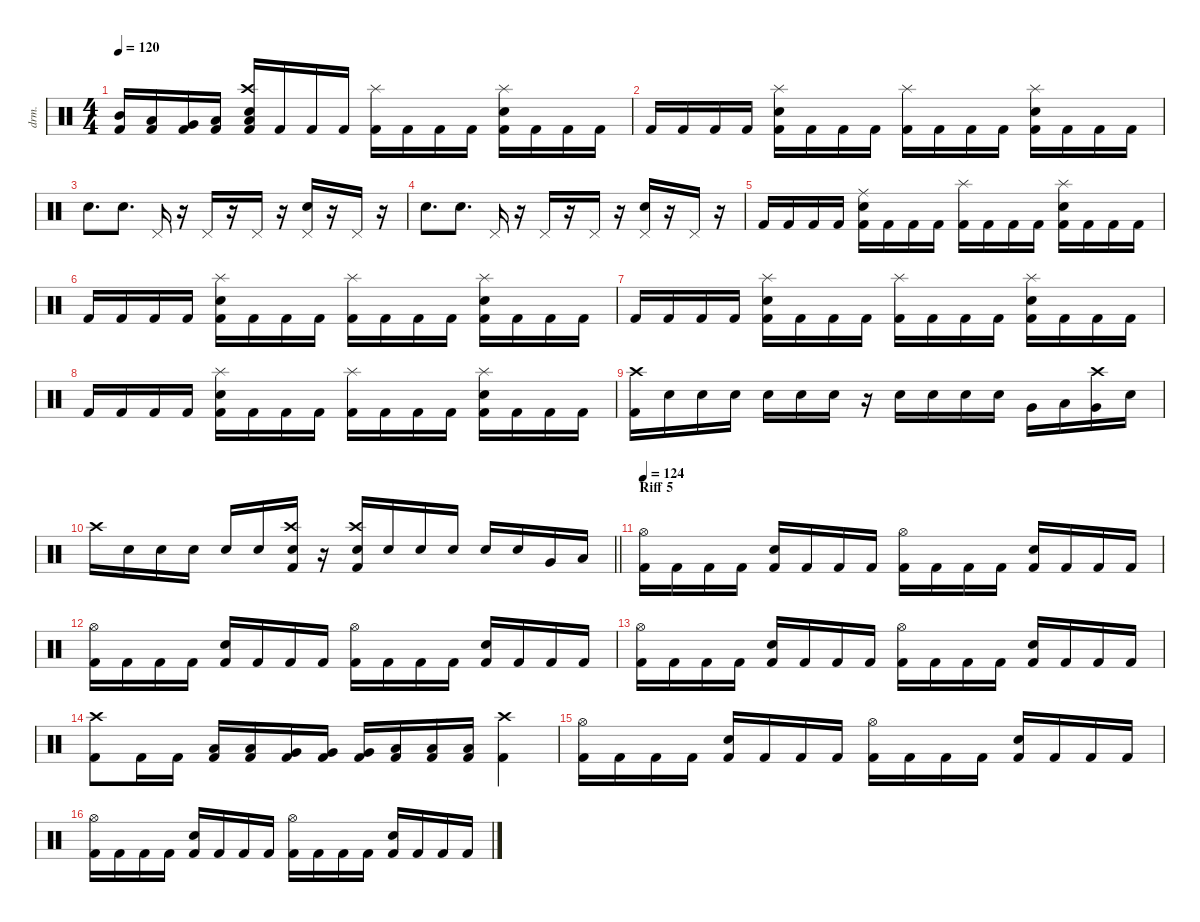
\defaultSystemsLayout 4
\hideDynamics
\bracketExtendMode nobrackets
\otherSystemsTrackNameOrientation horizontal
\track ("Drums" "drm.") {instrument percussion}
\staff {score}
\articulation defaults
\ts (4 4)
\tempo 120
\clef neutral
\ks c
("Mid Tom (hit)" "Kick (hit) 2").16{dy f} ("Low Tom (hit)" "Kick (hit) 2").16 ("Very Low Tom (hit)" "Kick (hit) 2").16 ("Low Floor Tom (hit)" "Kick (hit) 2").16 ("Crash high (hit)" "Snare (hit) 2" "Low Floor Tom (hit)" "Kick (hit) 2").16 "Kick (hit) 2".16 "Kick (hit) 2".16 "Kick (hit) 2".16 ("Splash (hit)" "Kick (hit) 2").16 "Kick (hit) 2".16 "Kick (hit) 2".16 "Kick (hit) 2".16 ("Splash (hit)" "Snare (hit) 2" "Kick (hit) 2").16 "Kick (hit) 2".16 "Kick (hit) 2".16 "Kick (hit) 2".16 |
"Kick (hit) 2".16 "Kick (hit) 2".16 "Kick (hit) 2".16 "Kick (hit) 2".16 ("Splash (hit)" "Snare (hit) 2" "Kick (hit) 2").16 "Kick (hit) 2".16 "Kick (hit) 2".16 "Kick (hit) 2".16 ("Splash (hit)" "Kick (hit) 2").16 "Kick (hit) 2".16 "Kick (hit) 2".16 "Kick (hit) 2".16 ("Splash (hit)" "Snare (hit) 2" "Kick (hit) 2").16 "Kick (hit) 2".16 "Kick (hit) 2".16 "Kick (hit) 2".16 |
"Snare (hit) 2".8{d} "Snare (hit) 2".8{d} "Pedal Hi-Hat (hit)".16 r.16 "Pedal Hi-Hat (hit)".16 r.16 "Pedal Hi-Hat (hit)".16 r.16 ("Pedal Hi-Hat (hit)" "Snare (hit) 2").16 r.16 "Pedal Hi-Hat (hit)".16 r.16 |
"Snare (hit) 2".8{d} "Snare (hit) 2".8{d} "Pedal Hi-Hat (hit)".16 r.16 "Pedal Hi-Hat (hit)".16 r.16 "Pedal Hi-Hat (hit)".16 r.16 ("Pedal Hi-Hat (hit)" "Snare (hit) 2").16 r.16 "Pedal Hi-Hat (hit)".16 r.16 |
"Kick (hit) 2".16 "Kick (hit) 2".16 "Kick (hit) 2".16 "Kick (hit) 2".16 ("Ride (middle)" "Snare (hit) 2" "Kick (hit) 2").16 "Kick (hit) 2".16 "Kick (hit) 2".16 "Kick (hit) 2".16 ("Splash (hit)" "Kick (hit) 2").16 "Kick (hit) 2".16 "Kick (hit) 2".16 "Kick (hit) 2".16 ("Splash (hit)" "Snare (hit) 2" "Kick (hit) 2").16 "Kick (hit) 2".16 "Kick (hit) 2".16 "Kick (hit) 2".16 |
"Kick (hit) 2".16 "Kick (hit) 2".16 "Kick (hit) 2".16 "Kick (hit) 2".16 ("Splash (hit)" "Snare (hit) 2" "Kick (hit) 2").16 "Kick (hit) 2".16 "Kick (hit) 2".16 "Kick (hit) 2".16 ("Splash (hit)" "Kick (hit) 2").16 "Kick (hit) 2".16 "Kick (hit) 2".16 "Kick (hit) 2".16 ("Splash (hit)" "Snare (hit) 2" "Kick (hit) 2").16 "Kick (hit) 2".16 "Kick (hit) 2".16 "Kick (hit) 2".16 |
"Kick (hit) 2".16 "Kick (hit) 2".16 "Kick (hit) 2".16 "Kick (hit) 2".16 ("Splash (hit)" "Snare (hit) 2" "Kick (hit) 2").16 "Kick (hit) 2".16 "Kick (hit) 2".16 "Kick (hit) 2".16 ("Splash (hit)" "Kick (hit) 2").16 "Kick (hit) 2".16 "Kick (hit) 2".16 "Kick (hit) 2".16 ("Splash (hit)" "Snare (hit) 2" "Kick (hit) 2").16 "Kick (hit) 2".16 "Kick (hit) 2".16 "Kick (hit) 2".16 |
"Kick (hit) 2".16 "Kick (hit) 2".16 "Kick (hit) 2".16 "Kick (hit) 2".16 ("Splash (hit)" "Snare (hit) 2" "Kick (hit) 2").16 "Kick (hit) 2".16 "Kick (hit) 2".16 "Kick (hit) 2".16 ("Splash (hit)" "Kick (hit) 2").16 "Kick (hit) 2".16 "Kick (hit) 2".16 "Kick (hit) 2".16 ("Splash (hit)" "Snare (hit) 2" "Kick (hit) 2").16 "Kick (hit) 2".16 "Kick (hit) 2".16 "Kick (hit) 2".16 |
("Kick (hit) 2" "Crash high (hit)").16 "Snare (hit) 2".16 "Snare (hit) 2".16 "Snare (hit) 2".16 "Snare (hit) 2".16 "Snare (hit) 2".16 "Snare (hit) 2".16 r.16 "Snare (hit) 2".16 "Snare (hit) 2".16 "Snare (hit) 2".16 "Snare (hit) 2".16 "Very Low Tom (hit)".16 "Low Floor Tom (hit)".16 ("Crash high (hit)" "Very Low Tom (hit)").16 "Snare (hit) 2".16 |
\barLineRight lightlight "Crash high (hit)".16 "Snare (hit) 2".16 "Snare (hit) 2".16 "Snare (hit) 2".16 "Snare (hit) 2".16 "Snare (hit) 2".16
("Kick (hit) 2" "Snare (hit) 2" "Crash high (hit)").16 r.16 ("Kick (hit) 2" "Snare (hit) 2" "Crash high (hit)").16 "Snare (hit) 2".16 "Snare (hit) 2".16 "Snare (hit) 2".16 "Snare (hit) 2".16 "Snare (hit) 2".16 "Very Low Tom (hit)".16 "Low Floor Tom (hit)".16 |
\section ("" "Riff 5")
\tempo 124
("Hi-Hat (open)" "Kick (hit) 2").16 "Kick (hit) 2".16 "Kick (hit) 2".16 "Kick (hit) 2".16 ("Snare (hit) 2" "Kick (hit) 2").16 "Kick (hit) 2".16 "Kick (hit) 2".16 "Kick (hit) 2".16 ("Hi-Hat (open)" "Kick (hit) 2").16 "Kick (hit) 2".16 "Kick (hit) 2".16 "Kick (hit) 2".16 ("Snare (hit) 2" "Kick (hit) 2").16 "Kick (hit) 2".16 "Kick (hit) 2".16 "Kick (hit) 2".16 |
("Hi-Hat (open)" "Kick (hit) 2").16 "Kick (hit) 2".16 "Kick (hit) 2".16 "Kick (hit) 2".16 ("Snare (hit) 2" "Kick (hit) 2").16 "Kick (hit) 2".16 "Kick (hit) 2".16 "Kick (hit) 2".16 ("Hi-Hat (open)" "Kick (hit) 2").16 "Kick (hit) 2".16 "Kick (hit) 2".16 "Kick (hit) 2".16 ("Snare (hit) 2" "Kick (hit) 2").16 "Kick (hit) 2".16 "Kick (hit) 2".16 "Kick (hit) 2".16 |
("Hi-Hat (open)" "Kick (hit) 2").16 "Kick (hit) 2".16 "Kick (hit) 2".16 "Kick (hit) 2".16 ("Snare (hit) 2" "Kick (hit) 2").16 "Kick (hit) 2".16 "Kick (hit) 2".16 "Kick (hit) 2".16 ("Hi-Hat (open)" "Kick (hit) 2").16 "Kick (hit) 2".16 "Kick (hit) 2".16 "Kick (hit) 2".16 ("Snare (hit) 2" "Kick (hit) 2").16 "Kick (hit) 2".16 "Kick (hit) 2".16 "Kick (hit) 2".16 |
("Crash high (hit)" "Kick (hit) 2").8 "Kick (hit) 2".16 "Kick (hit) 2".16 ("Low Tom (hit)" "Kick (hit) 2").16 ("Low Tom (hit)" "Kick (hit) 2").16 ("Very Low Tom (hit)" "Kick (hit) 2").16 ("Very Low Tom (hit)" "Kick (hit) 2").16 ("Very Low Tom (hit)" "Kick (hit) 2").16 ("Low Floor Tom (hit)" "Kick (hit) 2").16 ("Low Floor Tom (hit)" "Kick (hit) 2").16 ("Low Floor Tom (hit)" "Kick (hit) 2").16 ("Crash high (hit)" "Kick (hit) 2").4 |
("Hi-Hat (open)" "Kick (hit) 2").16 "Kick (hit) 2".16 "Kick (hit) 2".16 "Kick (hit) 2".16 ("Snare (hit) 2" "Kick (hit) 2").16 "Kick (hit) 2".16 "Kick (hit) 2".16 "Kick (hit) 2".16 ("Hi-Hat (open)" "Kick (hit) 2").16 "Kick (hit) 2".16 "Kick (hit) 2".16 "Kick (hit) 2".16 ("Snare (hit) 2" "Kick (hit) 2").16 "Kick (hit) 2".16 "Kick (hit) 2".16 "Kick (hit) 2".16 |
("Hi-Hat (open)" "Kick (hit) 2").16 "Kick (hit) 2".16 "Kick (hit) 2".16 "Kick (hit) 2".16 ("Snare (hit) 2" "Kick (hit) 2").16 "Kick (hit) 2".16 "Kick (hit) 2".16 "Kick (hit) 2".16 ("Hi-Hat (open)" "Kick (hit) 2").16 "Kick (hit) 2".16 "Kick (hit) 2".16 "Kick (hit) 2".16 ("Snare (hit) 2" "Kick (hit) 2").16 "Kick (hit) 2".16 "Kick (hit) 2".16 "Kick (hit) 2".16
